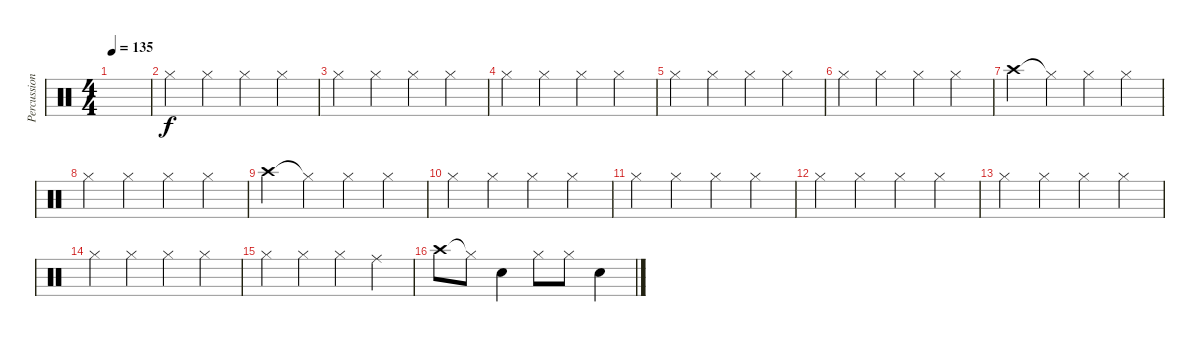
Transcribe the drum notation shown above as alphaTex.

\track ("Percussion" "Percussion") {instrument percussion}
\staff {score}
\articulation defaults
\ts (4 4)
\tempo 135
\clef neutral
\ks c
|
"Hi-Hat (closed)".4 "Hi-Hat (closed)".4 "Hi-Hat (closed)".4 "Hi-Hat (closed)".4 |
"Hi-Hat (closed)".4 "Hi-Hat (closed)".4 "Hi-Hat (closed)".4 "Hi-Hat (closed)".4 |
"Hi-Hat (closed)".4 "Hi-Hat (closed)".4 "Hi-Hat (closed)".4 "Hi-Hat (closed)".4 |
"Hi-Hat (closed)".4 "Hi-Hat (closed)".4 "Hi-Hat (closed)".4 "Hi-Hat (closed)".4 |
"Hi-Hat (closed)".4 "Hi-Hat (closed)".4 "Hi-Hat (closed)".4 "Hi-Hat (closed)".4 |
"Crash high (hit)".4 "Hi-Hat (closed)"{t}.4 "Hi-Hat (closed)".4 "Hi-Hat (closed)".4 |
"Hi-Hat (closed)".4 "Hi-Hat (closed)".4 "Hi-Hat (closed)".4 "Hi-Hat (closed)".4 |
"Crash high (hit)".4 "Hi-Hat (closed)"{t}.4 "Hi-Hat (closed)".4 "Hi-Hat (closed)".4 |
"Hi-Hat (closed)".4 "Hi-Hat (closed)".4 "Hi-Hat (closed)".4 "Hi-Hat (closed)".4 |
"Hi-Hat (closed)".4 "Hi-Hat (closed)".4 "Hi-Hat (closed)".4 "Hi-Hat (closed)".4 |
"Hi-Hat (closed)".4 "Hi-Hat (closed)".4 "Hi-Hat (closed)".4 "Hi-Hat (closed)".4 |
"Hi-Hat (closed)".4 "Hi-Hat (closed)".4 "Hi-Hat (closed)".4 "Hi-Hat (closed)".4 |
"Hi-Hat (closed)".4 "Hi-Hat (closed)".4 "Hi-Hat (closed)".4 "Hi-Hat (closed)".4 |
"Hi-Hat (closed)".4 "Hi-Hat (closed)".4 "Hi-Hat (closed)".4 "Ride (middle)".4 |
"Crash high (hit)".8 "Hi-Hat (closed)"{t}.8 "Electric Snare (hit)".4 "Hi-Hat (closed)".8 "Hi-Hat (closed)".8 "Electric Snare (hit)".4
